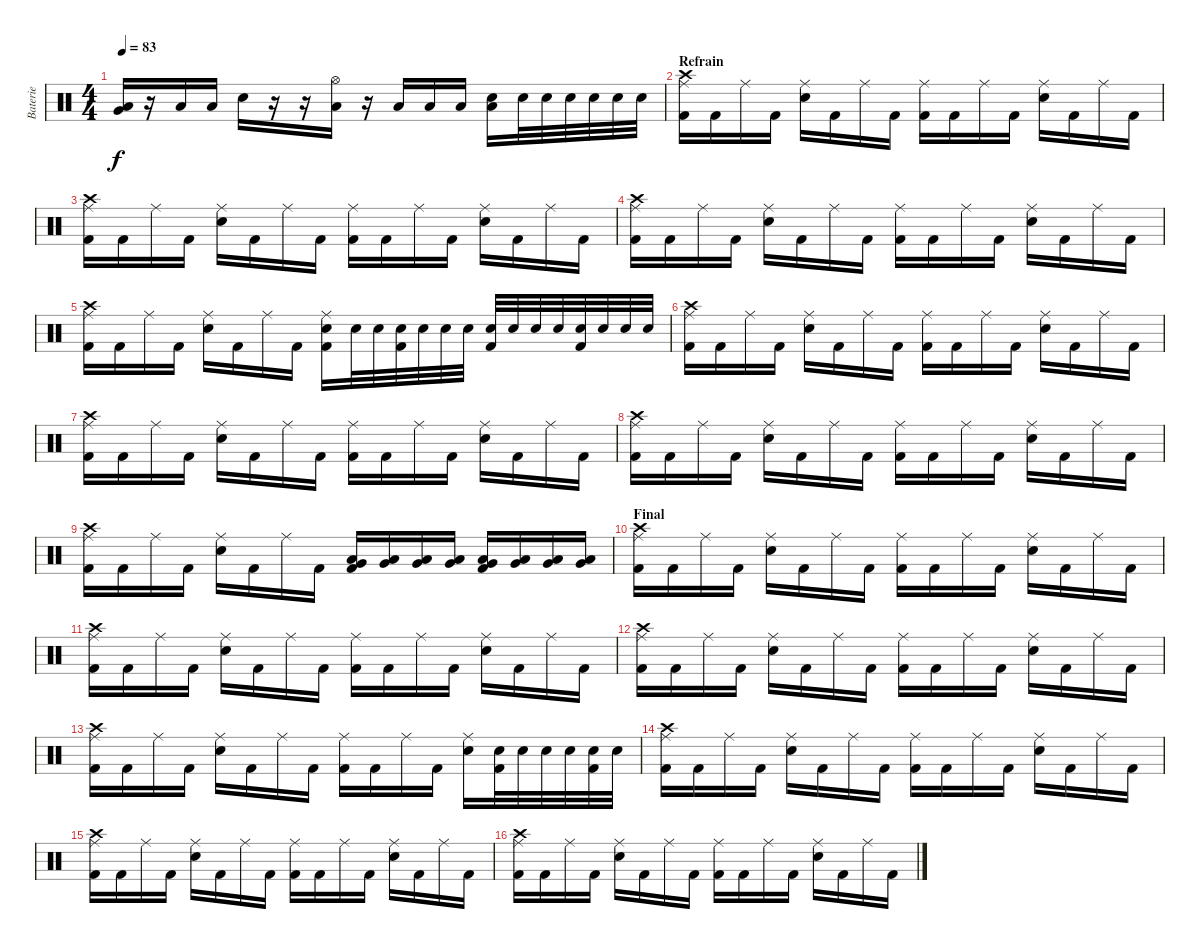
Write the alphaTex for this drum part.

\track ("Baterie" "Baterie") {instrument percussion}
\staff {score}
\articulation defaults
\ts (4 4)
\tempo 83
\clef neutral
\ks c
("Low Floor Tom (hit)" "Very Low Tom (hit)").16{dy f} r.16 "Low Floor Tom (hit)".16 "Low Floor Tom (hit)".16 "Snare (hit) 2".16 r.16 r.16 ("Hi-Hat (open)" "Low Floor Tom (hit)").16 r.16 "Low Floor Tom (hit)".16 "Low Floor Tom (hit)".16 "Low Floor Tom (hit)".16 ("Snare (hit) 2" "Low Floor Tom (hit)").16 "Snare (hit) 2".32 "Snare (hit) 2".32 "Snare (hit) 2".32 "Snare (hit) 2".32 "Snare (hit) 2".32 "Snare (hit) 2".32 |
\section ("" "Refrain")
("Crash high (hit)" "Kick (hit) 2" "Ride (middle)").16 "Kick (hit) 2".16 "Ride (middle)".16 "Kick (hit) 2".16 ("Snare (hit) 2" "Ride (middle)").16 "Kick (hit) 2".16 "Ride (middle)".16 "Kick (hit) 2".16 ("Kick (hit) 2" "Ride (middle)").16 "Kick (hit) 2".16 "Ride (middle)".16 "Kick (hit) 2".16 ("Snare (hit) 2" "Ride (middle)").16 "Kick (hit) 2".16 "Ride (middle)".16 "Kick (hit) 2".16 |
("Crash high (hit)" "Kick (hit) 2" "Ride (middle)").16 "Kick (hit) 2".16 "Ride (middle)".16 "Kick (hit) 2".16 ("Snare (hit) 2" "Ride (middle)").16 "Kick (hit) 2".16 "Ride (middle)".16 "Kick (hit) 2".16 ("Kick (hit) 2" "Ride (middle)").16 "Kick (hit) 2".16 "Ride (middle)".16 "Kick (hit) 2".16 ("Snare (hit) 2" "Ride (middle)").16 "Kick (hit) 2".16 "Ride (middle)".16 "Kick (hit) 2".16 |
("Crash high (hit)" "Kick (hit) 2" "Ride (middle)").16 "Kick (hit) 2".16 "Ride (middle)".16 "Kick (hit) 2".16 ("Snare (hit) 2" "Ride (middle)").16 "Kick (hit) 2".16 "Ride (middle)".16 "Kick (hit) 2".16 ("Kick (hit) 2" "Ride (middle)").16 "Kick (hit) 2".16 "Ride (middle)".16 "Kick (hit) 2".16 ("Snare (hit) 2" "Ride (middle)").16 "Kick (hit) 2".16 "Ride (middle)".16 "Kick (hit) 2".16 |
("Crash high (hit)" "Kick (hit) 2" "Ride (middle)").16 "Kick (hit) 2".16 "Ride (middle)".16 "Kick (hit) 2".16 ("Snare (hit) 2" "Ride (middle)").16 "Kick (hit) 2".16 "Ride (middle)".16 "Kick (hit) 2".16 ("Snare (hit) 2" "Kick (hit) 2" "Ride (middle)").16 "Snare (hit) 2".32 "Snare (hit) 2".32 ("Snare (hit) 2" "Kick (hit) 2").32 "Snare (hit) 2".32 "Snare (hit) 2".32 "Snare (hit) 2".32 ("Snare (hit) 2" "Kick (hit) 2").32 "Snare (hit) 2".32 "Snare (hit) 2".32 "Snare (hit) 2".32 ("Snare (hit) 2" "Kick (hit) 2").32 "Snare (hit) 2".32 "Snare (hit) 2".32 "Snare (hit) 2".32 |
("Crash high (hit)" "Kick (hit) 2" "Ride (middle)").16 "Kick (hit) 2".16 "Ride (middle)".16 "Kick (hit) 2".16 ("Snare (hit) 2" "Ride (middle)").16 "Kick (hit) 2".16 "Ride (middle)".16 "Kick (hit) 2".16 ("Kick (hit) 2" "Ride (middle)").16 "Kick (hit) 2".16 "Ride (middle)".16 "Kick (hit) 2".16 ("Snare (hit) 2" "Ride (middle)").16 "Kick (hit) 2".16 "Ride (middle)".16 "Kick (hit) 2".16 |
("Crash high (hit)" "Kick (hit) 2" "Ride (middle)").16 "Kick (hit) 2".16 "Ride (middle)".16 "Kick (hit) 2".16 ("Snare (hit) 2" "Ride (middle)").16 "Kick (hit) 2".16 "Ride (middle)".16 "Kick (hit) 2".16 ("Kick (hit) 2" "Ride (middle)").16 "Kick (hit) 2".16 "Ride (middle)".16 "Kick (hit) 2".16 ("Snare (hit) 2" "Ride (middle)").16 "Kick (hit) 2".16 "Ride (middle)".16 "Kick (hit) 2".16 |
("Crash high (hit)" "Kick (hit) 2" "Ride (middle)").16 "Kick (hit) 2".16 "Ride (middle)".16 "Kick (hit) 2".16 ("Snare (hit) 2" "Ride (middle)").16 "Kick (hit) 2".16 "Ride (middle)".16 "Kick (hit) 2".16 ("Kick (hit) 2" "Ride (middle)").16 "Kick (hit) 2".16 "Ride (middle)".16 "Kick (hit) 2".16 ("Snare (hit) 2" "Ride (middle)").16 "Kick (hit) 2".16 "Ride (middle)".16 "Kick (hit) 2".16 |
("Crash high (hit)" "Kick (hit) 2" "Ride (middle)").16 "Kick (hit) 2".16 "Ride (middle)".16 "Kick (hit) 2".16 ("Snare (hit) 2" "Ride (middle)").16 "Kick (hit) 2".16 "Ride (middle)".16 "Kick (hit) 2".16 ("Kick (hit) 2" "Low Floor Tom (hit)" "Very Low Tom (hit)").16 ("Low Floor Tom (hit)" "Very Low Tom (hit)").16 ("Low Floor Tom (hit)" "Very Low Tom (hit)").16 ("Low Floor Tom (hit)" "Very Low Tom (hit)").16 ("Kick (hit) 2" "Low Floor Tom (hit)" "Very Low Tom (hit)").16 ("Low Floor Tom (hit)" "Very Low Tom (hit)").16 ("Low Floor Tom (hit)" "Very Low Tom (hit)").16 ("Low Floor Tom (hit)" "Very Low Tom (hit)").16 |
\section ("" "Final")
("Crash high (hit)" "Kick (hit) 2" "Ride (middle)").16 "Kick (hit) 2".16 "Ride (middle)".16 "Kick (hit) 2".16 ("Snare (hit) 2" "Ride (middle)").16 "Kick (hit) 2".16 "Ride (middle)".16 "Kick (hit) 2".16 ("Kick (hit) 2" "Ride (middle)").16 "Kick (hit) 2".16 "Ride (middle)".16 "Kick (hit) 2".16 ("Snare (hit) 2" "Ride (middle)").16 "Kick (hit) 2".16 "Ride (middle)".16 "Kick (hit) 2".16 |
("Crash high (hit)" "Kick (hit) 2" "Ride (middle)").16 "Kick (hit) 2".16 "Ride (middle)".16 "Kick (hit) 2".16 ("Snare (hit) 2" "Ride (middle)").16 "Kick (hit) 2".16 "Ride (middle)".16 "Kick (hit) 2".16 ("Kick (hit) 2" "Ride (middle)").16 "Kick (hit) 2".16 "Ride (middle)".16 "Kick (hit) 2".16 ("Snare (hit) 2" "Ride (middle)").16 "Kick (hit) 2".16 "Ride (middle)".16 "Kick (hit) 2".16 |
("Crash high (hit)" "Kick (hit) 2" "Ride (middle)").16 "Kick (hit) 2".16 "Ride (middle)".16 "Kick (hit) 2".16 ("Snare (hit) 2" "Ride (middle)").16 "Kick (hit) 2".16 "Ride (middle)".16 "Kick (hit) 2".16 ("Kick (hit) 2" "Ride (middle)").16 "Kick (hit) 2".16 "Ride (middle)".16 "Kick (hit) 2".16 ("Snare (hit) 2" "Ride (middle)").16 "Kick (hit) 2".16 "Ride (middle)".16 "Kick (hit) 2".16 |
("Crash high (hit)" "Kick (hit) 2" "Ride (middle)").16 "Kick (hit) 2".16 "Ride (middle)".16 "Kick (hit) 2".16 ("Snare (hit) 2" "Ride (middle)").16 "Kick (hit) 2".16 "Ride (middle)".16 "Kick (hit) 2".16 ("Kick (hit) 2" "Ride (middle)").16 "Kick (hit) 2".16 "Ride (middle)".16 "Kick (hit) 2".16 ("Snare (hit) 2" "Ride (middle)").16 ("Snare (hit) 2" "Kick (hit) 2").32 "Snare (hit) 2".32 "Snare (hit) 2".32 "Snare (hit) 2".32 ("Snare (hit) 2" "Kick (hit) 2").32 "Snare (hit) 2".32 |
("Crash high (hit)" "Kick (hit) 2" "Ride (middle)").16 "Kick (hit) 2".16 "Ride (middle)".16 "Kick (hit) 2".16 ("Snare (hit) 2" "Ride (middle)").16 "Kick (hit) 2".16 "Ride (middle)".16 "Kick (hit) 2".16 ("Kick (hit) 2" "Ride (middle)").16 "Kick (hit) 2".16 "Ride (middle)".16 "Kick (hit) 2".16 ("Snare (hit) 2" "Ride (middle)").16 "Kick (hit) 2".16 "Ride (middle)".16 "Kick (hit) 2".16 |
("Crash high (hit)" "Kick (hit) 2" "Ride (middle)").16 "Kick (hit) 2".16 "Ride (middle)".16 "Kick (hit) 2".16 ("Snare (hit) 2" "Ride (middle)").16 "Kick (hit) 2".16 "Ride (middle)".16 "Kick (hit) 2".16 ("Kick (hit) 2" "Ride (middle)").16 "Kick (hit) 2".16 "Ride (middle)".16 "Kick (hit) 2".16 ("Snare (hit) 2" "Ride (middle)").16 "Kick (hit) 2".16 "Ride (middle)".16 "Kick (hit) 2".16 |
("Crash high (hit)" "Kick (hit) 2" "Ride (middle)").16 "Kick (hit) 2".16 "Ride (middle)".16 "Kick (hit) 2".16 ("Snare (hit) 2" "Ride (middle)").16 "Kick (hit) 2".16 "Ride (middle)".16 "Kick (hit) 2".16 ("Kick (hit) 2" "Ride (middle)").16 "Kick (hit) 2".16 "Ride (middle)".16 "Kick (hit) 2".16 ("Snare (hit) 2" "Ride (middle)").16 "Kick (hit) 2".16 "Ride (middle)".16 "Kick (hit) 2".16
